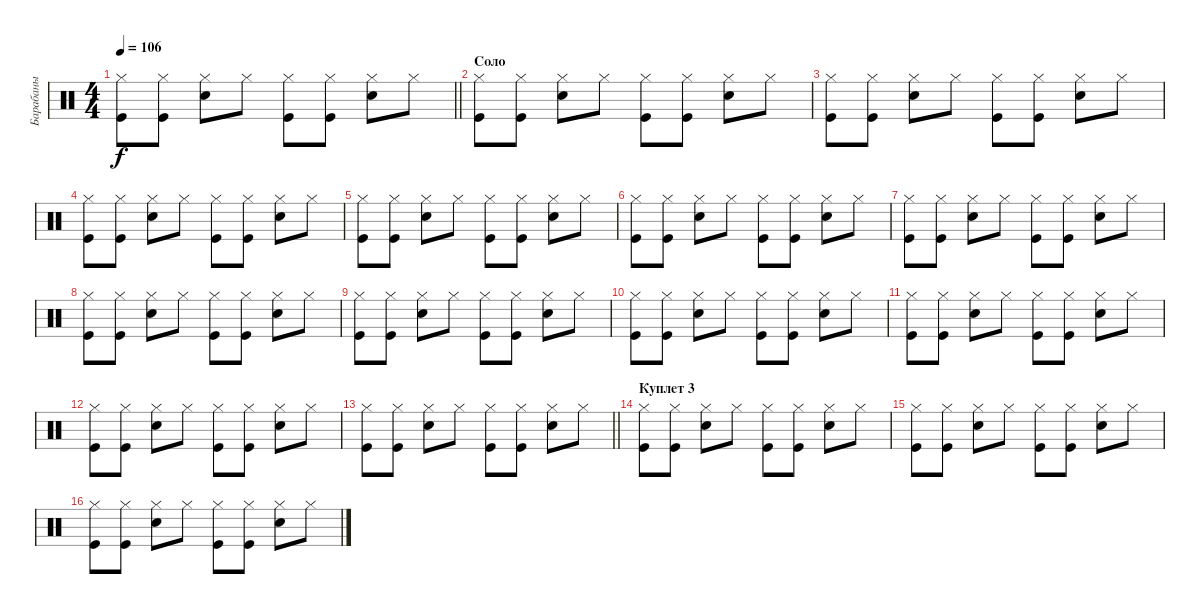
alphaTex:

\track ("Барабаны" "Барабаны") {instrument percussion}
\staff {score}
\articulation defaults
\ts (4 4)
\tempo 106
\clef neutral
\barLineRight lightlight
\ks c
("Kick (hit)" "Hi-Hat (closed)").8{dy f} ("Kick (hit)" "Hi-Hat (closed)").8 ("Snare (hit) 2" "Hi-Hat (closed)").8 "Hi-Hat (closed)".8 ("Kick (hit)" "Hi-Hat (closed)").8 ("Kick (hit)" "Hi-Hat (closed)").8 ("Snare (hit) 2" "Hi-Hat (closed)").8 "Hi-Hat (closed)".8 |
\section ("" "Соло")
("Kick (hit)" "Hi-Hat (closed)").8 ("Kick (hit)" "Hi-Hat (closed)").8 ("Snare (hit) 2" "Hi-Hat (closed)").8 "Hi-Hat (closed)".8 ("Kick (hit)" "Hi-Hat (closed)").8 ("Kick (hit)" "Hi-Hat (closed)").8 ("Snare (hit) 2" "Hi-Hat (closed)").8 "Hi-Hat (closed)".8 |
("Kick (hit)" "Hi-Hat (closed)").8 ("Kick (hit)" "Hi-Hat (closed)").8 ("Snare (hit) 2" "Hi-Hat (closed)").8 "Hi-Hat (closed)".8 ("Kick (hit)" "Hi-Hat (closed)").8 ("Kick (hit)" "Hi-Hat (closed)").8 ("Snare (hit) 2" "Hi-Hat (closed)").8 "Hi-Hat (closed)".8 |
("Kick (hit)" "Hi-Hat (closed)").8 ("Kick (hit)" "Hi-Hat (closed)").8 ("Snare (hit) 2" "Hi-Hat (closed)").8 "Hi-Hat (closed)".8 ("Kick (hit)" "Hi-Hat (closed)").8 ("Kick (hit)" "Hi-Hat (closed)").8 ("Snare (hit) 2" "Hi-Hat (closed)").8 "Hi-Hat (closed)".8 |
("Kick (hit)" "Hi-Hat (closed)").8 ("Kick (hit)" "Hi-Hat (closed)").8 ("Snare (hit) 2" "Hi-Hat (closed)").8 "Hi-Hat (closed)".8 ("Kick (hit)" "Hi-Hat (closed)").8 ("Kick (hit)" "Hi-Hat (closed)").8 ("Snare (hit) 2" "Hi-Hat (closed)").8 "Hi-Hat (closed)".8 |
("Kick (hit)" "Hi-Hat (closed)").8 ("Kick (hit)" "Hi-Hat (closed)").8 ("Snare (hit) 2" "Hi-Hat (closed)").8 "Hi-Hat (closed)".8 ("Kick (hit)" "Hi-Hat (closed)").8 ("Kick (hit)" "Hi-Hat (closed)").8 ("Snare (hit) 2" "Hi-Hat (closed)").8 "Hi-Hat (closed)".8 |
("Kick (hit)" "Hi-Hat (closed)").8 ("Kick (hit)" "Hi-Hat (closed)").8 ("Snare (hit) 2" "Hi-Hat (closed)").8 "Hi-Hat (closed)".8 ("Kick (hit)" "Hi-Hat (closed)").8 ("Kick (hit)" "Hi-Hat (closed)").8 ("Snare (hit) 2" "Hi-Hat (closed)").8 "Hi-Hat (closed)".8 |
("Kick (hit)" "Hi-Hat (closed)").8 ("Kick (hit)" "Hi-Hat (closed)").8 ("Snare (hit) 2" "Hi-Hat (closed)").8 "Hi-Hat (closed)".8 ("Kick (hit)" "Hi-Hat (closed)").8 ("Kick (hit)" "Hi-Hat (closed)").8 ("Snare (hit) 2" "Hi-Hat (closed)").8 "Hi-Hat (closed)".8 |
("Kick (hit)" "Hi-Hat (closed)").8 ("Kick (hit)" "Hi-Hat (closed)").8 ("Snare (hit) 2" "Hi-Hat (closed)").8 "Hi-Hat (closed)".8 ("Kick (hit)" "Hi-Hat (closed)").8 ("Kick (hit)" "Hi-Hat (closed)").8 ("Snare (hit) 2" "Hi-Hat (closed)").8 "Hi-Hat (closed)".8 |
("Kick (hit)" "Hi-Hat (closed)").8 ("Kick (hit)" "Hi-Hat (closed)").8 ("Snare (hit) 2" "Hi-Hat (closed)").8 "Hi-Hat (closed)".8 ("Kick (hit)" "Hi-Hat (closed)").8 ("Kick (hit)" "Hi-Hat (closed)").8 ("Snare (hit) 2" "Hi-Hat (closed)").8 "Hi-Hat (closed)".8 |
("Kick (hit)" "Hi-Hat (closed)").8 ("Kick (hit)" "Hi-Hat (closed)").8 ("Snare (hit) 2" "Hi-Hat (closed)").8 "Hi-Hat (closed)".8 ("Kick (hit)" "Hi-Hat (closed)").8 ("Kick (hit)" "Hi-Hat (closed)").8 ("Snare (hit) 2" "Hi-Hat (closed)").8 "Hi-Hat (closed)".8 |
("Kick (hit)" "Hi-Hat (closed)").8 ("Kick (hit)" "Hi-Hat (closed)").8 ("Snare (hit) 2" "Hi-Hat (closed)").8 "Hi-Hat (closed)".8 ("Kick (hit)" "Hi-Hat (closed)").8 ("Kick (hit)" "Hi-Hat (closed)").8 ("Snare (hit) 2" "Hi-Hat (closed)").8 "Hi-Hat (closed)".8 |
\barLineRight lightlight
("Kick (hit)" "Hi-Hat (closed)").8 ("Kick (hit)" "Hi-Hat (closed)").8 ("Snare (hit) 2" "Hi-Hat (closed)").8 "Hi-Hat (closed)".8 ("Kick (hit)" "Hi-Hat (closed)").8 ("Kick (hit)" "Hi-Hat (closed)").8 ("Snare (hit) 2" "Hi-Hat (closed)").8 "Hi-Hat (closed)".8 |
\section ("" "Куплет 3")
("Kick (hit)" "Hi-Hat (closed)").8 ("Kick (hit)" "Hi-Hat (closed)").8 ("Snare (hit) 2" "Hi-Hat (closed)").8 "Hi-Hat (closed)".8 ("Kick (hit)" "Hi-Hat (closed)").8 ("Kick (hit)" "Hi-Hat (closed)").8 ("Snare (hit) 2" "Hi-Hat (closed)").8 "Hi-Hat (closed)".8 |
("Kick (hit)" "Hi-Hat (closed)").8 ("Kick (hit)" "Hi-Hat (closed)").8 ("Snare (hit) 2" "Hi-Hat (closed)").8 "Hi-Hat (closed)".8 ("Kick (hit)" "Hi-Hat (closed)").8 ("Kick (hit)" "Hi-Hat (closed)").8 ("Snare (hit) 2" "Hi-Hat (closed)").8 "Hi-Hat (closed)".8 |
("Kick (hit)" "Hi-Hat (closed)").8 ("Kick (hit)" "Hi-Hat (closed)").8 ("Snare (hit) 2" "Hi-Hat (closed)").8 "Hi-Hat (closed)".8 ("Kick (hit)" "Hi-Hat (closed)").8 ("Kick (hit)" "Hi-Hat (closed)").8 ("Snare (hit) 2" "Hi-Hat (closed)").8 "Hi-Hat (closed)".8
